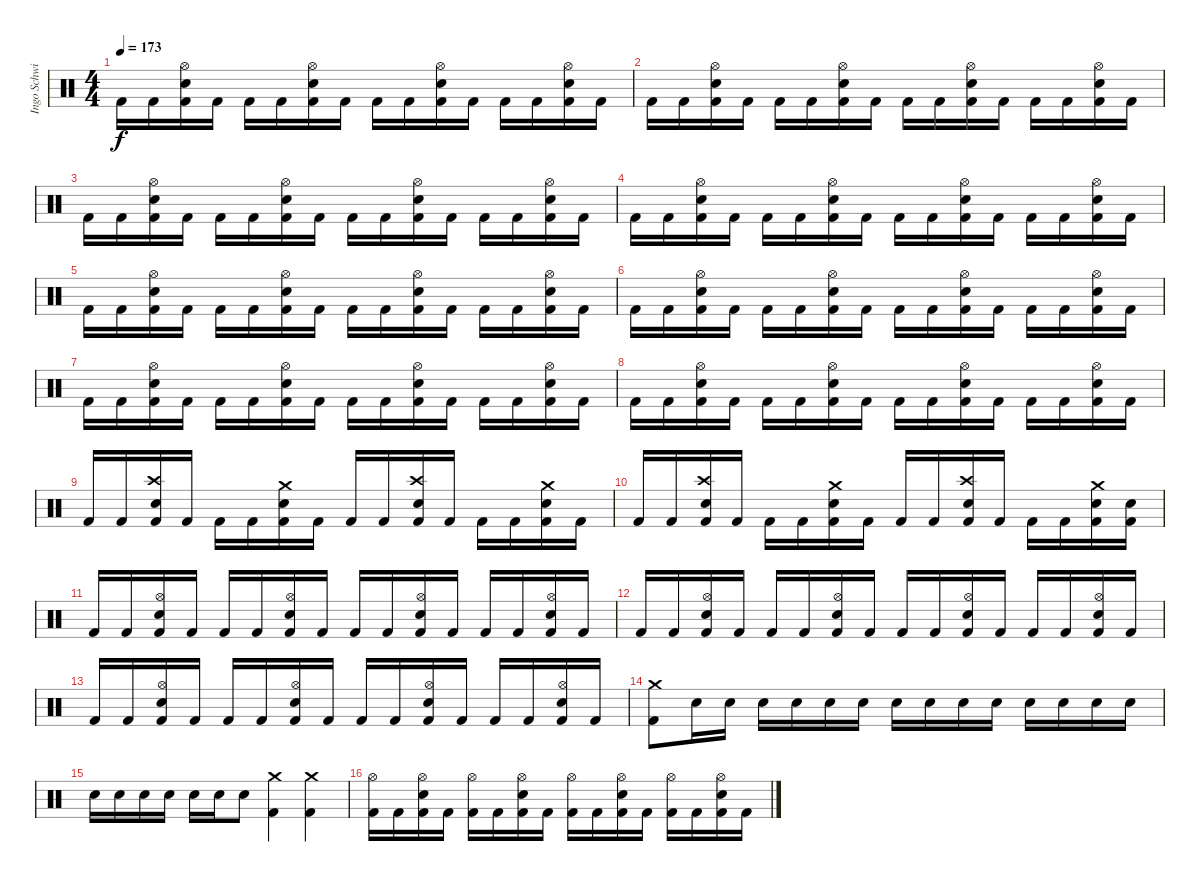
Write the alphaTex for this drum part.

\track ("Ingo Schwichtenberg" "Ingo Schwi") {instrument percussion}
\staff {score}
\articulation defaults
\ts (4 4)
\tempo 173
\clef neutral
\ks c "Kick (hit) 2".16{dy f} "Kick (hit) 2".16
("Kick (hit) 2" "Snare (hit) 2" "Hi-Hat (open)").16 "Kick (hit) 2".16 "Kick (hit) 2".16 "Kick (hit) 2".16 ("Kick (hit) 2" "Snare (hit) 2" "Hi-Hat (open)").16 "Kick (hit) 2".16 "Kick (hit) 2".16 "Kick (hit) 2".16 ("Kick (hit) 2" "Snare (hit) 2" "Hi-Hat (open)").16 "Kick (hit) 2".16 "Kick (hit) 2".16 "Kick (hit) 2".16 ("Kick (hit) 2" "Snare (hit) 2" "Hi-Hat (open)").16 "Kick (hit) 2".16 |
"Kick (hit) 2".16 "Kick (hit) 2".16 ("Kick (hit) 2" "Snare (hit) 2" "Hi-Hat (open)").16 "Kick (hit) 2".16 "Kick (hit) 2".16 "Kick (hit) 2".16 ("Kick (hit) 2" "Snare (hit) 2" "Hi-Hat (open)").16 "Kick (hit) 2".16 "Kick (hit) 2".16 "Kick (hit) 2".16 ("Kick (hit) 2" "Snare (hit) 2" "Hi-Hat (open)").16 "Kick (hit) 2".16 "Kick (hit) 2".16 "Kick (hit) 2".16 ("Kick (hit) 2" "Snare (hit) 2" "Hi-Hat (open)").16 "Kick (hit) 2".16 |
"Kick (hit) 2".16 "Kick (hit) 2".16 ("Kick (hit) 2" "Snare (hit) 2" "Hi-Hat (open)").16 "Kick (hit) 2".16 "Kick (hit) 2".16 "Kick (hit) 2".16 ("Kick (hit) 2" "Snare (hit) 2" "Hi-Hat (open)").16 "Kick (hit) 2".16 "Kick (hit) 2".16 "Kick (hit) 2".16 ("Kick (hit) 2" "Snare (hit) 2" "Hi-Hat (open)").16 "Kick (hit) 2".16 "Kick (hit) 2".16 "Kick (hit) 2".16 ("Kick (hit) 2" "Snare (hit) 2" "Hi-Hat (open)").16 "Kick (hit) 2".16 |
"Kick (hit) 2".16 "Kick (hit) 2".16 ("Kick (hit) 2" "Snare (hit) 2" "Hi-Hat (open)").16 "Kick (hit) 2".16 "Kick (hit) 2".16 "Kick (hit) 2".16 ("Kick (hit) 2" "Snare (hit) 2" "Hi-Hat (open)").16 "Kick (hit) 2".16 "Kick (hit) 2".16 "Kick (hit) 2".16 ("Kick (hit) 2" "Snare (hit) 2" "Hi-Hat (open)").16 "Kick (hit) 2".16 "Kick (hit) 2".16 "Kick (hit) 2".16 ("Kick (hit) 2" "Snare (hit) 2" "Hi-Hat (open)").16 "Kick (hit) 2".16 |
"Kick (hit) 2".16 "Kick (hit) 2".16 ("Kick (hit) 2" "Snare (hit) 2" "Hi-Hat (open)").16 "Kick (hit) 2".16 "Kick (hit) 2".16 "Kick (hit) 2".16 ("Kick (hit) 2" "Snare (hit) 2" "Hi-Hat (open)").16 "Kick (hit) 2".16 "Kick (hit) 2".16 "Kick (hit) 2".16 ("Kick (hit) 2" "Snare (hit) 2" "Hi-Hat (open)").16 "Kick (hit) 2".16 "Kick (hit) 2".16 "Kick (hit) 2".16 ("Kick (hit) 2" "Snare (hit) 2" "Hi-Hat (open)").16 "Kick (hit) 2".16 |
"Kick (hit) 2".16 "Kick (hit) 2".16 ("Kick (hit) 2" "Snare (hit) 2" "Hi-Hat (open)").16 "Kick (hit) 2".16 "Kick (hit) 2".16 "Kick (hit) 2".16 ("Kick (hit) 2" "Snare (hit) 2" "Hi-Hat (open)").16 "Kick (hit) 2".16 "Kick (hit) 2".16 "Kick (hit) 2".16 ("Kick (hit) 2" "Snare (hit) 2" "Hi-Hat (open)").16 "Kick (hit) 2".16 "Kick (hit) 2".16 "Kick (hit) 2".16 ("Kick (hit) 2" "Snare (hit) 2" "Hi-Hat (open)").16 "Kick (hit) 2".16 |
"Kick (hit) 2".16 "Kick (hit) 2".16 ("Kick (hit) 2" "Snare (hit) 2" "Hi-Hat (open)").16 "Kick (hit) 2".16 "Kick (hit) 2".16 "Kick (hit) 2".16 ("Kick (hit) 2" "Snare (hit) 2" "Hi-Hat (open)").16 "Kick (hit) 2".16 "Kick (hit) 2".16 "Kick (hit) 2".16 ("Kick (hit) 2" "Snare (hit) 2" "Hi-Hat (open)").16 "Kick (hit) 2".16 "Kick (hit) 2".16 "Kick (hit) 2".16 ("Kick (hit) 2" "Snare (hit) 2" "Hi-Hat (open)").16 "Kick (hit) 2".16 |
"Kick (hit) 2".16 "Kick (hit) 2".16 ("Kick (hit) 2" "Snare (hit) 2" "Hi-Hat (open)").16 "Kick (hit) 2".16 "Kick (hit) 2".16 "Kick (hit) 2".16 ("Kick (hit) 2" "Snare (hit) 2" "Hi-Hat (open)").16 "Kick (hit) 2".16 "Kick (hit) 2".16 "Kick (hit) 2".16 ("Kick (hit) 2" "Snare (hit) 2" "Hi-Hat (open)").16 "Kick (hit) 2".16 "Kick (hit) 2".16 "Kick (hit) 2".16 ("Kick (hit) 2" "Snare (hit) 2" "Hi-Hat (open)").16 "Kick (hit) 2".16 |
"Kick (hit) 2".16 "Kick (hit) 2".16 ("Crash high (hit)" "Electric Snare (hit)" "Kick (hit) 2").16 "Kick (hit) 2".16 "Kick (hit) 2".16 "Kick (hit) 2".16 ("Crash medium (hit)" "Electric Snare (hit)" "Kick (hit) 2").16 "Kick (hit) 2".16 "Kick (hit) 2".16 "Kick (hit) 2".16 ("Crash high (hit)" "Electric Snare (hit)" "Kick (hit) 2").16 "Kick (hit) 2".16 "Kick (hit) 2".16 "Kick (hit) 2".16 ("Crash medium (hit)" "Electric Snare (hit)" "Kick (hit) 2").16 "Kick (hit) 2".16 |
"Kick (hit) 2".16 "Kick (hit) 2".16 ("Crash high (hit)" "Electric Snare (hit)" "Kick (hit) 2").16 "Kick (hit) 2".16 "Kick (hit) 2".16 "Kick (hit) 2".16 ("Crash medium (hit)" "Electric Snare (hit)" "Kick (hit) 2").16 "Kick (hit) 2".16 "Kick (hit) 2".16 "Kick (hit) 2".16 ("Crash high (hit)" "Electric Snare (hit)" "Kick (hit) 2").16 "Kick (hit) 2".16 "Kick (hit) 2".16 "Kick (hit) 2".16 ("Crash medium (hit)" "Electric Snare (hit)" "Kick (hit) 2").16 ("Electric Snare (hit)" "Kick (hit) 2").16 |
"Kick (hit) 2".16 "Kick (hit) 2".16 ("Hi-Hat (open)" "Electric Snare (hit)" "Kick (hit) 2").16 "Kick (hit) 2".16 "Kick (hit) 2".16 "Kick (hit) 2".16 ("Hi-Hat (open)" "Electric Snare (hit)" "Kick (hit) 2").16 "Kick (hit) 2".16 "Kick (hit) 2".16 "Kick (hit) 2".16 ("Hi-Hat (open)" "Electric Snare (hit)" "Kick (hit) 2").16 "Kick (hit) 2".16 "Kick (hit) 2".16 "Kick (hit) 2".16 ("Hi-Hat (open)" "Electric Snare (hit)" "Kick (hit) 2").16 "Kick (hit) 2".16 |
"Kick (hit) 2".16 "Kick (hit) 2".16 ("Hi-Hat (open)" "Electric Snare (hit)" "Kick (hit) 2").16 "Kick (hit) 2".16 "Kick (hit) 2".16 "Kick (hit) 2".16 ("Hi-Hat (open)" "Electric Snare (hit)" "Kick (hit) 2").16 "Kick (hit) 2".16 "Kick (hit) 2".16 "Kick (hit) 2".16 ("Hi-Hat (open)" "Electric Snare (hit)" "Kick (hit) 2").16 "Kick (hit) 2".16 "Kick (hit) 2".16 "Kick (hit) 2".16 ("Hi-Hat (open)" "Electric Snare (hit)" "Kick (hit) 2").16 "Kick (hit) 2".16 |
"Kick (hit) 2".16 "Kick (hit) 2".16 ("Hi-Hat (open)" "Electric Snare (hit)" "Kick (hit) 2").16 "Kick (hit) 2".16 "Kick (hit) 2".16 "Kick (hit) 2".16 ("Hi-Hat (open)" "Electric Snare (hit)" "Kick (hit) 2").16 "Kick (hit) 2".16 "Kick (hit) 2".16 "Kick (hit) 2".16 ("Hi-Hat (open)" "Electric Snare (hit)" "Kick (hit) 2").16 "Kick (hit) 2".16 "Kick (hit) 2".16 "Kick (hit) 2".16 ("Hi-Hat (open)" "Electric Snare (hit)" "Kick (hit) 2").16 "Kick (hit) 2".16 |
("Crash medium (hit)" "Kick (hit) 2").8 "Electric Snare (hit)".16 "Electric Snare (hit)".16 "Electric Snare (hit)".16 "Electric Snare (hit)".16 "Electric Snare (hit)".16 "Electric Snare (hit)".16 "Electric Snare (hit)".16 "Electric Snare (hit)".16 "Electric Snare (hit)".16 "Electric Snare (hit)".16 "Electric Snare (hit)".16 "Electric Snare (hit)".16 "Electric Snare (hit)".16 "Electric Snare (hit)".16 |
"Electric Snare (hit)".16 "Electric Snare (hit)".16 "Electric Snare (hit)".16 "Electric Snare (hit)".16 "Electric Snare (hit)".16 "Electric Snare (hit)".16 "Electric Snare (hit)".8 ("Crash medium (hit)" "Kick (hit) 2").4 ("Crash medium (hit)" "Kick (hit) 2").4 |
("Hi-Hat (open)" "Kick (hit) 2").16 "Kick (hit) 2".16 ("Hi-Hat (open)" "Electric Snare (hit)" "Kick (hit) 2").16 "Kick (hit) 2".16 ("Hi-Hat (open)" "Kick (hit) 2").16 "Kick (hit) 2".16 ("Hi-Hat (open)" "Electric Snare (hit)" "Kick (hit) 2").16 "Kick (hit) 2".16 ("Hi-Hat (open)" "Kick (hit) 2").16 "Kick (hit) 2".16 ("Hi-Hat (open)" "Electric Snare (hit)" "Kick (hit) 2").16 "Kick (hit) 2".16 ("Hi-Hat (open)" "Kick (hit) 2").16 "Kick (hit) 2".16 ("Hi-Hat (open)" "Electric Snare (hit)" "Kick (hit) 2").16 "Kick (hit) 2".16
